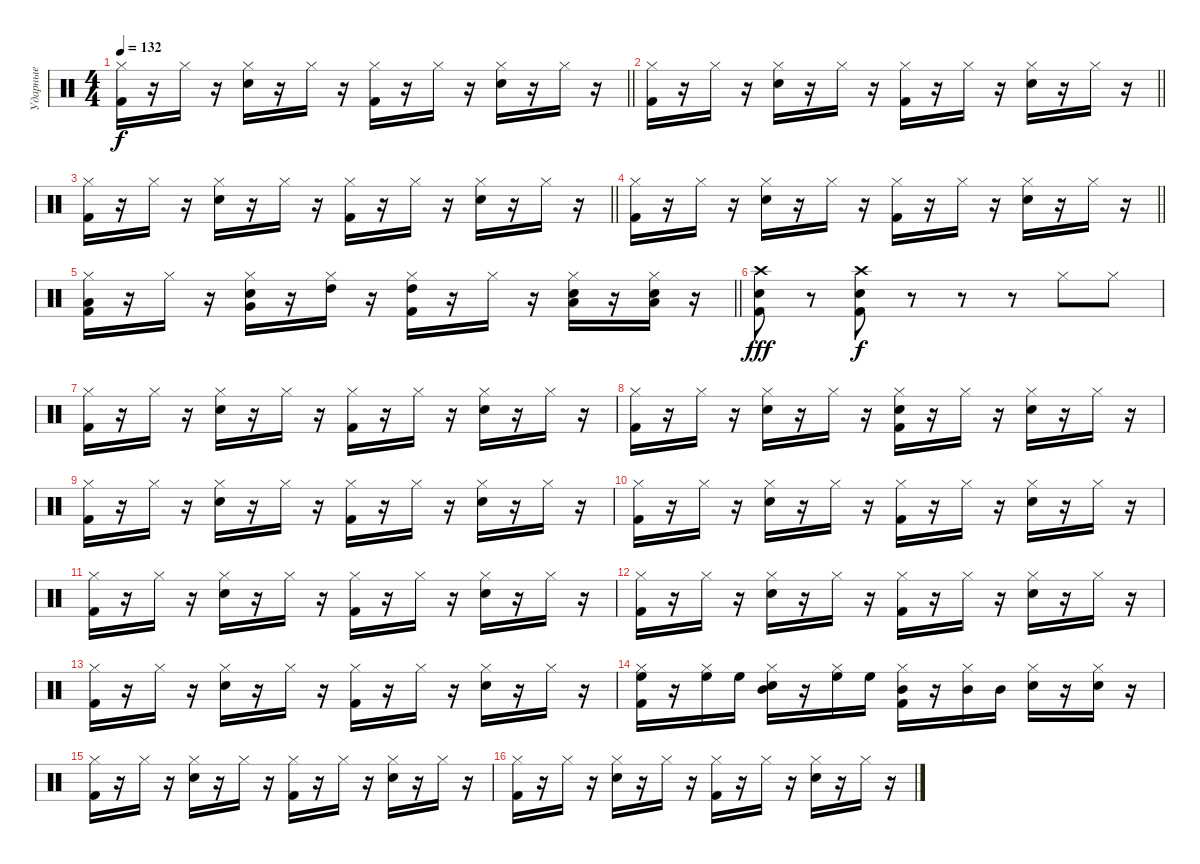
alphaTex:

\track ("Ударные" "Ударные") {instrument percussion}
\staff {score}
\articulation defaults
\ts (4 4)
\tempo 132
\clef neutral
\barLineRight lightlight
\ks c
("Kick (hit) 2" "Hi-Hat (closed)").16{dy f} r.16 "Hi-Hat (closed)".16 r.16 ("Snare (hit) 2" "Hi-Hat (closed)").16 r.16 "Hi-Hat (closed)".16 r.16 ("Kick (hit) 2" "Hi-Hat (closed)").16 r.16 "Hi-Hat (closed)".16 r.16 ("Snare (hit) 2" "Hi-Hat (closed)").16 r.16 "Hi-Hat (closed)".16 r.16 |
\barLineRight lightlight
("Kick (hit) 2" "Hi-Hat (closed)").16 r.16 "Hi-Hat (closed)".16 r.16 ("Snare (hit) 2" "Hi-Hat (closed)").16 r.16 "Hi-Hat (closed)".16 r.16 ("Kick (hit) 2" "Hi-Hat (closed)").16 r.16 "Hi-Hat (closed)".16 r.16 ("Snare (hit) 2" "Hi-Hat (closed)").16 r.16 "Hi-Hat (closed)".16 r.16 |
\barLineRight lightlight
("Kick (hit) 2" "Hi-Hat (closed)").16 r.16 "Hi-Hat (closed)".16 r.16 ("Snare (hit) 2" "Hi-Hat (closed)").16 r.16 "Hi-Hat (closed)".16 r.16 ("Kick (hit) 2" "Hi-Hat (closed)").16 r.16 "Hi-Hat (closed)".16 r.16 ("Snare (hit) 2" "Hi-Hat (closed)").16 r.16 "Hi-Hat (closed)".16 r.16 |
\barLineRight lightlight
("Kick (hit) 2" "Hi-Hat (closed)").16 r.16 "Hi-Hat (closed)".16 r.16 ("Snare (hit) 2" "Hi-Hat (closed)").16 r.16 "Hi-Hat (closed)".16 r.16 ("Kick (hit) 2" "Hi-Hat (closed)").16 r.16 "Hi-Hat (closed)".16 r.16 ("Snare (hit) 2" "Hi-Hat (closed)").16 r.16 "Hi-Hat (closed)".16 r.16 |
\barLineRight lightlight
("Kick (hit) 2" "Low Tom (hit)" "Hi-Hat (closed)").16 r.16 "Hi-Hat (closed)".16 r.16 ("Snare (hit) 2" "Very Low Tom (hit)" "Hi-Hat (closed)").16 r.16 ("High Tom (hit)" "Hi-Hat (closed)").16 r.16 ("Kick (hit) 2" "High Tom (hit)" "Hi-Hat (closed)").16 r.16 "Hi-Hat (closed)".16 r.16 ("Snare (hit) 2" "Low Floor Tom (hit)" "Hi-Hat (closed)").16 r.16 ("Snare (hit) 2" "Low Floor Tom (hit)" "Hi-Hat (closed)").16 r.16 |
("Kick (hit) 2" "Snare (hit) 2" "Crash high (hit)").8{dy fff} r.8 ("Kick (hit) 2" "Snare (hit) 2" "Crash high (hit)").8{dy f} r.8 r.8 r.8 "Hi-Hat (closed)".8 "Hi-Hat (closed)".8 |
("Kick (hit) 2" "Hi-Hat (closed)").16 r.16 "Hi-Hat (closed)".16 r.16 ("Snare (hit) 2" "Hi-Hat (closed)").16 r.16 "Hi-Hat (closed)".16 r.16 ("Kick (hit) 2" "Hi-Hat (closed)").16 r.16 "Hi-Hat (closed)".16 r.16 ("Snare (hit) 2" "Hi-Hat (closed)").16 r.16 "Hi-Hat (closed)".16 r.16 |
("Kick (hit) 2" "Hi-Hat (closed)").16 r.16 "Hi-Hat (closed)".16 r.16 ("Snare (hit) 2" "Hi-Hat (closed)").16 r.16 "Hi-Hat (closed)".16 r.16 ("Kick (hit) 2" "Snare (hit)" "Hi-Hat (closed)").16 r.16 "Hi-Hat (closed)".16 r.16 ("Snare (hit) 2" "Hi-Hat (closed)").16 r.16 "Hi-Hat (closed)".16 r.16 |
("Kick (hit) 2" "Hi-Hat (closed)").16 r.16 "Hi-Hat (closed)".16 r.16 ("Snare (hit) 2" "Hi-Hat (closed)").16 r.16 "Hi-Hat (closed)".16 r.16 ("Kick (hit) 2" "Hi-Hat (closed)").16 r.16 "Hi-Hat (closed)".16 r.16 ("Snare (hit) 2" "Hi-Hat (closed)").16 r.16 "Hi-Hat (closed)".16 r.16 |
("Kick (hit) 2" "Hi-Hat (closed)").16 r.16 "Hi-Hat (closed)".16 r.16 ("Snare (hit) 2" "Hi-Hat (closed)").16 r.16 "Hi-Hat (closed)".16 r.16 ("Kick (hit) 2" "Hi-Hat (closed)").16 r.16 "Hi-Hat (closed)".16 r.16 ("Snare (hit) 2" "Hi-Hat (closed)").16 r.16 "Hi-Hat (closed)".16 r.16 |
("Kick (hit) 2" "Hi-Hat (closed)").16 r.16 "Hi-Hat (closed)".16 r.16 ("Snare (hit) 2" "Hi-Hat (closed)").16 r.16 "Hi-Hat (closed)".16 r.16 ("Kick (hit) 2" "Hi-Hat (closed)").16 r.16 "Hi-Hat (closed)".16 r.16 ("Snare (hit) 2" "Hi-Hat (closed)").16 r.16 "Hi-Hat (closed)".16 r.16 |
("Kick (hit) 2" "Hi-Hat (closed)").16 r.16 "Hi-Hat (closed)".16 r.16 ("Snare (hit) 2" "Hi-Hat (closed)").16 r.16 "Hi-Hat (closed)".16 r.16 ("Kick (hit) 2" "Hi-Hat (closed)").16 r.16 "Hi-Hat (closed)".16 r.16 ("Snare (hit) 2" "Hi-Hat (closed)").16 r.16 "Hi-Hat (closed)".16 r.16 |
("Kick (hit) 2" "Hi-Hat (closed)").16 r.16 "Hi-Hat (closed)".16 r.16 ("Snare (hit) 2" "Hi-Hat (closed)").16 r.16 "Hi-Hat (closed)".16 r.16 ("Kick (hit) 2" "Hi-Hat (closed)").16 r.16 "Hi-Hat (closed)".16 r.16 ("Snare (hit) 2" "Hi-Hat (closed)").16 r.16 "Hi-Hat (closed)".16 r.16 |
("Kick (hit) 2" "High Floor Tom (hit)" "Hi-Hat (closed)").16 r.16 ("High Floor Tom (hit)" "Hi-Hat (closed)").16 "High Floor Tom (hit)".16 ("Snare (hit) 2" "Mid Tom (hit)" "Hi-Hat (closed)").16 r.16 ("High Floor Tom (hit)" "Hi-Hat (closed)").16 "High Floor Tom (hit)".16 ("Kick (hit) 2" "Mid Tom (hit)" "Hi-Hat (closed)").16 r.16 ("Mid Tom (hit)" "Hi-Hat (closed)").16 "Mid Tom (hit)".16 ("Snare (hit) 2" "Hi-Hat (closed)").16 r.16 ("Snare (hit) 2" "Hi-Hat (closed)").16 r.16 |
("Kick (hit) 2" "Hi-Hat (closed)").16 r.16 "Hi-Hat (closed)".16 r.16 ("Snare (hit) 2" "Hi-Hat (closed)").16 r.16 "Hi-Hat (closed)".16 r.16 ("Kick (hit) 2" "Hi-Hat (closed)").16 r.16 "Hi-Hat (closed)".16 r.16 ("Snare (hit) 2" "Hi-Hat (closed)").16 r.16 "Hi-Hat (closed)".16 r.16 |
("Kick (hit) 2" "Hi-Hat (closed)").16 r.16 "Hi-Hat (closed)".16 r.16 ("Snare (hit) 2" "Hi-Hat (closed)").16 r.16 "Hi-Hat (closed)".16 r.16 ("Kick (hit) 2" "Hi-Hat (closed)").16 r.16 "Hi-Hat (closed)".16 r.16 ("Snare (hit) 2" "Hi-Hat (closed)").16 r.16 "Hi-Hat (closed)".16 r.16
